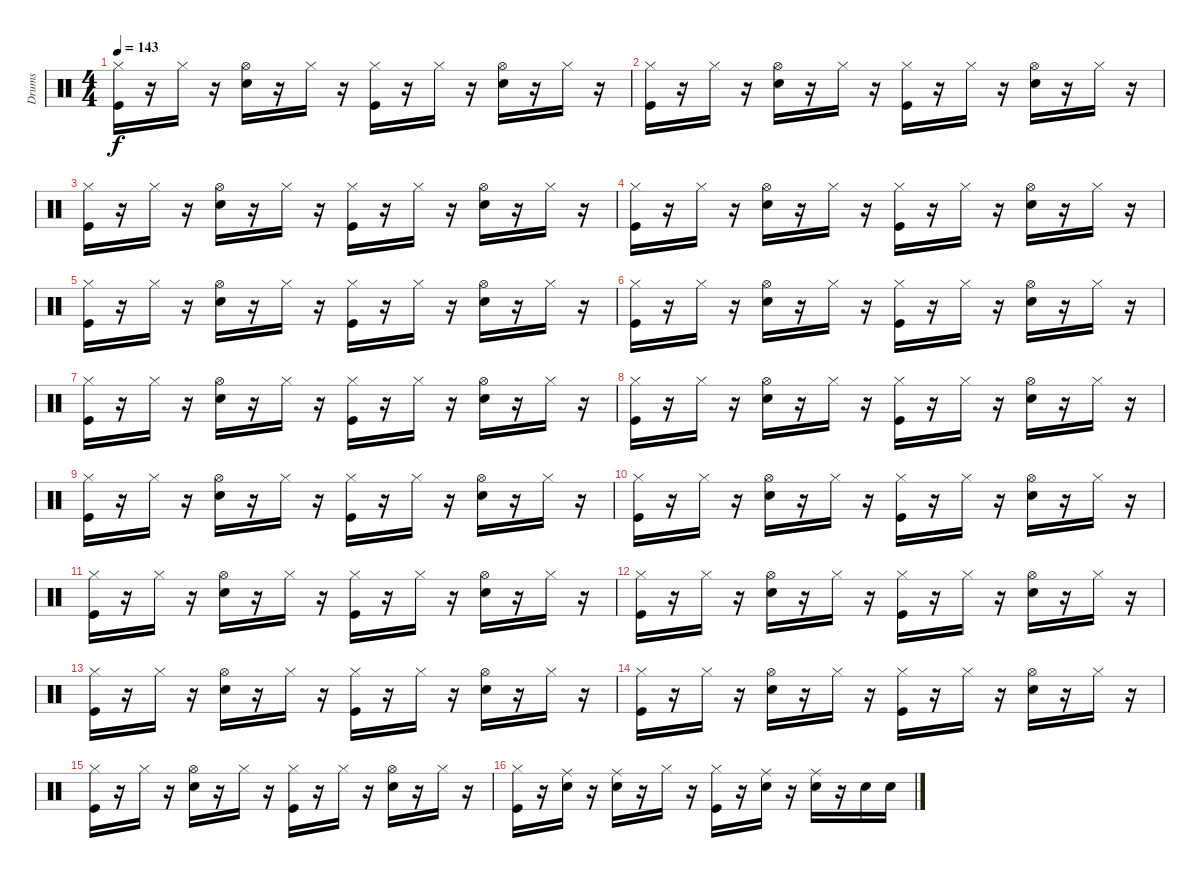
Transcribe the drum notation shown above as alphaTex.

\track ("Drums" "Drums") {instrument percussion}
\staff {score}
\articulation defaults
\ts (4 4)
\tempo 143
\clef neutral
\ks c
("Hi-Hat (closed)" "Kick (hit)").16{dy f} r.16 "Hi-Hat (closed)".16 r.16 ("Hi-Hat (open)" "Snare (hit) 2").16 r.16 "Hi-Hat (closed)".16 r.16 ("Hi-Hat (closed)" "Kick (hit)").16 r.16 "Hi-Hat (closed)".16 r.16 ("Hi-Hat (open)" "Snare (hit) 2").16 r.16 "Hi-Hat (closed)".16 r.16 |
("Hi-Hat (closed)" "Kick (hit)").16 r.16 "Hi-Hat (closed)".16 r.16 ("Hi-Hat (open)" "Snare (hit) 2").16 r.16 "Hi-Hat (closed)".16 r.16 ("Hi-Hat (closed)" "Kick (hit)").16 r.16 "Hi-Hat (closed)".16 r.16 ("Hi-Hat (open)" "Snare (hit) 2").16 r.16 "Hi-Hat (closed)".16 r.16 |
("Hi-Hat (closed)" "Kick (hit)").16 r.16 "Hi-Hat (closed)".16 r.16 ("Hi-Hat (open)" "Snare (hit) 2").16 r.16 "Hi-Hat (closed)".16 r.16 ("Hi-Hat (closed)" "Kick (hit)").16 r.16 "Hi-Hat (closed)".16 r.16 ("Hi-Hat (open)" "Snare (hit) 2").16 r.16 "Hi-Hat (closed)".16 r.16 |
("Hi-Hat (closed)" "Kick (hit)").16 r.16 "Hi-Hat (closed)".16 r.16 ("Hi-Hat (open)" "Snare (hit) 2").16 r.16 "Hi-Hat (closed)".16 r.16 ("Hi-Hat (closed)" "Kick (hit)").16 r.16 "Hi-Hat (closed)".16 r.16 ("Hi-Hat (open)" "Snare (hit) 2").16 r.16 "Hi-Hat (closed)".16 r.16 |
("Hi-Hat (closed)" "Kick (hit)").16 r.16 "Hi-Hat (closed)".16 r.16 ("Hi-Hat (open)" "Snare (hit) 2").16 r.16 "Hi-Hat (closed)".16 r.16 ("Hi-Hat (closed)" "Kick (hit)").16 r.16 "Hi-Hat (closed)".16 r.16 ("Hi-Hat (open)" "Snare (hit) 2").16 r.16 "Hi-Hat (closed)".16 r.16 |
("Hi-Hat (closed)" "Kick (hit)").16 r.16 "Hi-Hat (closed)".16 r.16 ("Hi-Hat (open)" "Snare (hit) 2").16 r.16 "Hi-Hat (closed)".16 r.16 ("Hi-Hat (closed)" "Kick (hit)").16 r.16 "Hi-Hat (closed)".16 r.16 ("Hi-Hat (open)" "Snare (hit) 2").16 r.16 "Hi-Hat (closed)".16 r.16 |
("Hi-Hat (closed)" "Kick (hit)").16 r.16 "Hi-Hat (closed)".16 r.16 ("Hi-Hat (open)" "Snare (hit) 2").16 r.16 "Hi-Hat (closed)".16 r.16 ("Hi-Hat (closed)" "Kick (hit)").16 r.16 "Hi-Hat (closed)".16 r.16 ("Hi-Hat (open)" "Snare (hit) 2").16 r.16 "Hi-Hat (closed)".16 r.16 |
("Hi-Hat (closed)" "Kick (hit)").16 r.16 "Hi-Hat (closed)".16 r.16 ("Hi-Hat (open)" "Snare (hit) 2").16 r.16 "Hi-Hat (closed)".16 r.16 ("Hi-Hat (closed)" "Kick (hit)").16 r.16 "Hi-Hat (closed)".16 r.16 ("Hi-Hat (open)" "Snare (hit) 2").16 r.16 "Hi-Hat (closed)".16 r.16 |
("Hi-Hat (closed)" "Kick (hit)").16 r.16 "Hi-Hat (closed)".16 r.16 ("Hi-Hat (open)" "Snare (hit) 2").16 r.16 "Hi-Hat (closed)".16 r.16 ("Hi-Hat (closed)" "Kick (hit)").16 r.16 "Hi-Hat (closed)".16 r.16 ("Hi-Hat (open)" "Snare (hit) 2").16 r.16 "Hi-Hat (closed)".16 r.16 |
("Hi-Hat (closed)" "Kick (hit)").16 r.16 "Hi-Hat (closed)".16 r.16 ("Hi-Hat (open)" "Snare (hit) 2").16 r.16 "Hi-Hat (closed)".16 r.16 ("Hi-Hat (closed)" "Kick (hit)").16 r.16 "Hi-Hat (closed)".16 r.16 ("Hi-Hat (open)" "Snare (hit) 2").16 r.16 "Hi-Hat (closed)".16 r.16 |
("Hi-Hat (closed)" "Kick (hit)").16 r.16 "Hi-Hat (closed)".16 r.16 ("Hi-Hat (open)" "Snare (hit) 2").16 r.16 "Hi-Hat (closed)".16 r.16 ("Hi-Hat (closed)" "Kick (hit)").16 r.16 "Hi-Hat (closed)".16 r.16 ("Hi-Hat (open)" "Snare (hit) 2").16 r.16 "Hi-Hat (closed)".16 r.16 |
("Hi-Hat (closed)" "Kick (hit)").16 r.16 "Hi-Hat (closed)".16 r.16 ("Hi-Hat (open)" "Snare (hit) 2").16 r.16 "Hi-Hat (closed)".16 r.16 ("Hi-Hat (closed)" "Kick (hit)").16 r.16 "Hi-Hat (closed)".16 r.16 ("Hi-Hat (open)" "Snare (hit) 2").16 r.16 "Hi-Hat (closed)".16 r.16 |
("Hi-Hat (closed)" "Kick (hit)").16 r.16 "Hi-Hat (closed)".16 r.16 ("Hi-Hat (open)" "Snare (hit) 2").16 r.16 "Hi-Hat (closed)".16 r.16 ("Hi-Hat (closed)" "Kick (hit)").16 r.16 "Hi-Hat (closed)".16 r.16 ("Hi-Hat (open)" "Snare (hit) 2").16 r.16 "Hi-Hat (closed)".16 r.16 |
("Hi-Hat (closed)" "Kick (hit)").16 r.16 "Hi-Hat (closed)".16 r.16 ("Hi-Hat (open)" "Snare (hit) 2").16 r.16 "Hi-Hat (closed)".16 r.16 ("Hi-Hat (closed)" "Kick (hit)").16 r.16 "Hi-Hat (closed)".16 r.16 ("Hi-Hat (open)" "Snare (hit) 2").16 r.16 "Hi-Hat (closed)".16 r.16 |
("Hi-Hat (closed)" "Kick (hit)").16 r.16 "Hi-Hat (closed)".16 r.16 ("Hi-Hat (open)" "Snare (hit) 2").16 r.16 "Hi-Hat (closed)".16 r.16 ("Hi-Hat (closed)" "Kick (hit)").16 r.16 "Hi-Hat (closed)".16 r.16 ("Hi-Hat (open)" "Snare (hit) 2").16 r.16 "Hi-Hat (closed)".16 r.16 |
("Hi-Hat (closed)" "Kick (hit)").16 r.16 ("Snare (hit) 2" "Ride (middle)").16 r.16 ("Snare (hit) 2" "Ride (middle)").16 r.16 "Hi-Hat (closed)".16 r.16 ("Hi-Hat (closed)" "Kick (hit)").16 r.16 ("Snare (hit) 2" "Ride (middle)").16 r.16 ("Snare (hit) 2" "Ride (middle)").16 r.16 "Snare (hit) 2".16 "Snare (hit) 2".16
